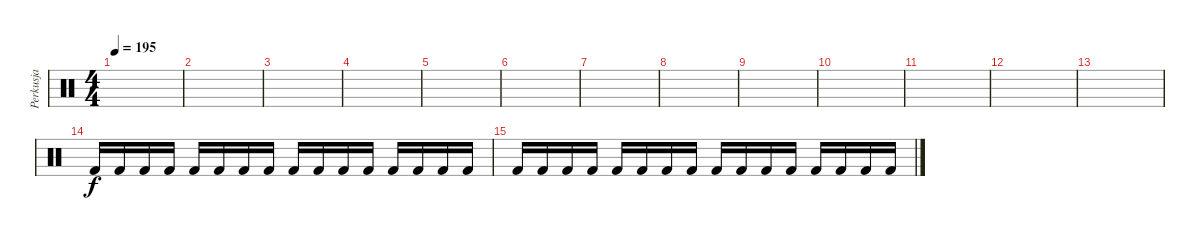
\track ("Perkusja" "Perkusja") {instrument percussion}
\staff {score}
\articulation defaults
\ts (4 4)
\tempo 195
\clef neutral
\ks c
|
|
|
|
|
|
|
|
|
|
|
|
|
"Kick (hit) 2".16 "Kick (hit) 2".16 "Kick (hit) 2".16 "Kick (hit) 2".16 "Kick (hit) 2".16 "Kick (hit) 2".16 "Kick (hit) 2".16 "Kick (hit) 2".16 "Kick (hit) 2".16 "Kick (hit) 2".16 "Kick (hit) 2".16 "Kick (hit) 2".16 "Kick (hit) 2".16 "Kick (hit) 2".16 "Kick (hit) 2".16 "Kick (hit) 2".16 |
"Kick (hit) 2".16 "Kick (hit) 2".16 "Kick (hit) 2".16 "Kick (hit) 2".16 "Kick (hit) 2".16 "Kick (hit) 2".16 "Kick (hit) 2".16 "Kick (hit) 2".16 "Kick (hit) 2".16 "Kick (hit) 2".16 "Kick (hit) 2".16 "Kick (hit) 2".16 "Kick (hit) 2".16 "Kick (hit) 2".16 "Kick (hit) 2".16 "Kick (hit) 2".16
